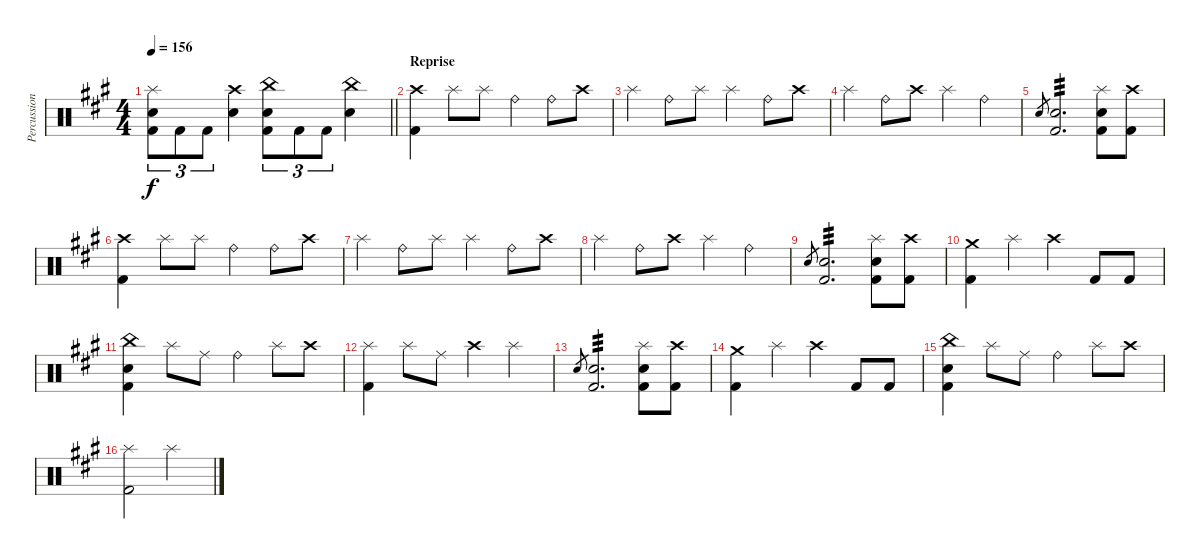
\track ("Percussion" "Percussion") {instrument percussion bank 127}
\staff {score}
\articulation defaults
\ts (4 4)
\tempo 156
\clef neutral
\barLineRight lightlight
\ks a
("Splash (hit)" "Electric Snare (hit)" "Kick (hit) 2").8{tu (3 2) dy f} "Kick (hit) 2".8{tu (3 2)} "Kick (hit) 2".8{tu (3 2)} ("Crash high (hit)" "Electric Snare (hit)").4 ("China (hit)" "Electric Snare (hit)" "Kick (hit) 2").8{tu (3 2)} "Kick (hit) 2".8{tu (3 2)} "Kick (hit) 2".8{tu (3 2)} ("China (hit)" "Electric Snare (hit)").4 |
\section ("" "Reprise")
("Crash high (hit)" "Kick (hit) 2").4 "Splash (hit)".8 "Splash (hit)".8 "Ride (bell)".4 "Ride (bell)".8 "Crash high (hit)".8 |
"Splash (hit)".4 "Ride (bell)".8 "Splash (hit)".8 "Splash (hit)".4 "Ride (bell)".8 "Crash high (hit)".8 |
"Splash (hit)".4 "Ride (bell)".8 "Crash high (hit)".8 "Splash (hit)".4 "Ride (bell)".4 |
"Electric Snare (hit)".8{gr} ("Electric Snare (hit)" "Kick (hit) 2").2{d tp 3} ("Splash (hit)" "Electric Snare (hit)" "Kick (hit) 2").8 ("Crash high (hit)" "Kick (hit) 2").8 |
("Crash high (hit)" "Kick (hit) 2").4 "Splash (hit)".8 "Splash (hit)".8 "Ride (bell)".4 "Ride (bell)".8 "Crash high (hit)".8 |
"Splash (hit)".4 "Ride (bell)".8 "Splash (hit)".8 "Splash (hit)".4 "Ride (bell)".8 "Crash high (hit)".8 |
"Splash (hit)".4 "Ride (bell)".8 "Crash high (hit)".8 "Splash (hit)".4 "Ride (bell)".4 |
"Electric Snare (hit)".8{gr} ("Electric Snare (hit)" "Kick (hit) 2").2{d tp 3} ("Splash (hit)" "Electric Snare (hit)" "Kick (hit) 2").8 ("Crash high (hit)" "Kick (hit) 2").8 |
("Crash medium (hit)" "Kick (hit) 2").4 "Splash (hit)".4 "Crash high (hit)".4 "Kick (hit) 2".8 "Kick (hit) 2".8 |
("China (hit)" "Electric Snare (hit)" "Kick (hit) 2").4 "Splash (hit)".8 "Ride (middle)".8 "Ride (bell)".4 "Splash (hit)".8 "Crash high (hit)".8 |
("Splash (hit)" "Kick (hit) 2").4 "Splash (hit)".8 "Ride (middle)".8 "Crash high (hit)".4 "Splash (hit)".4 |
"Electric Snare (hit)".8{gr} ("Electric Snare (hit)" "Kick (hit) 2").2{d tp 3} ("Splash (hit)" "Electric Snare (hit)" "Kick (hit) 2").8 ("Crash high (hit)" "Kick (hit) 2").8 |
("Crash medium (hit)" "Kick (hit) 2").4 "Splash (hit)".4 "Crash high (hit)".4 "Kick (hit) 2".8 "Kick (hit) 2".8 |
("China (hit)" "Electric Snare (hit)" "Kick (hit) 2").4 "Splash (hit)".8 "Ride (middle)".8 "Ride (bell)".4 "Splash (hit)".8 "Crash high (hit)".8 |
("Splash (hit)" "Kick (hit) 2").2 "Splash (hit)".2
